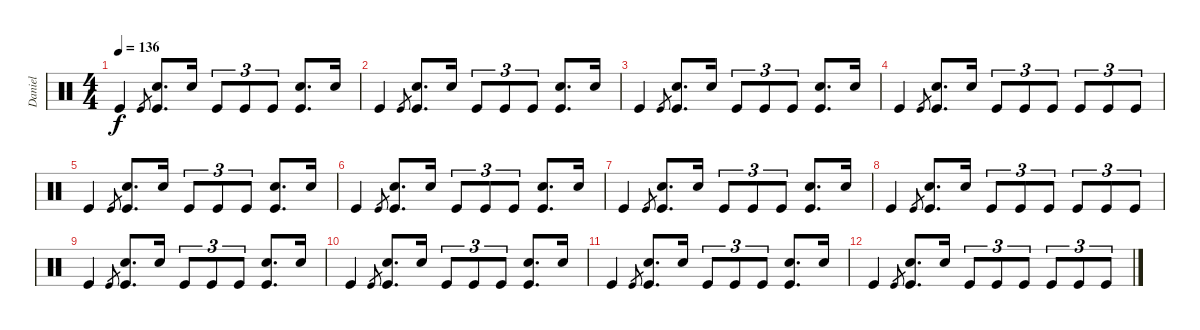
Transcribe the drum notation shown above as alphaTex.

\track ("Daniel" "Daniel") {instrument percussion}
\staff {score}
\articulation defaults
\ts (4 4)
\tempo 136
\clef neutral
\ks c "Kick (hit)".4{dy f} "Kick (hit)"{h}.8{gr}
("Snare (hit) 2" "Kick (hit)").8{d} "Snare (hit) 2".16 "Kick (hit)".8{tu (3 2)} "Kick (hit)".8{tu (3 2)} "Kick (hit)".8{tu (3 2)} ("Snare (hit) 2" "Kick (hit)").8{d} "Snare (hit) 2".16 |
"Kick (hit)".4 "Kick (hit)"{h}.8{gr} ("Snare (hit) 2" "Kick (hit)").8{d} "Snare (hit) 2".16 "Kick (hit)".8{tu (3 2)} "Kick (hit)".8{tu (3 2)} "Kick (hit)".8{tu (3 2)} ("Snare (hit) 2" "Kick (hit)").8{d} "Snare (hit) 2".16 |
"Kick (hit)".4 "Kick (hit)"{h}.8{gr} ("Snare (hit) 2" "Kick (hit)").8{d} "Snare (hit) 2".16 "Kick (hit)".8{tu (3 2)} "Kick (hit)".8{tu (3 2)} "Kick (hit)".8{tu (3 2)} ("Snare (hit) 2" "Kick (hit)").8{d} "Snare (hit) 2".16 |
"Kick (hit)".4 "Kick (hit)"{h}.8{gr} ("Snare (hit) 2" "Kick (hit)").8{d} "Snare (hit) 2".16 "Kick (hit)".8{tu (3 2)} "Kick (hit)".8{tu (3 2)} "Kick (hit)".8{tu (3 2)} "Kick (hit)".8{tu (3 2)} "Kick (hit)".8{tu (3 2)} "Kick (hit)".8{tu (3 2)} |
"Kick (hit)".4 "Kick (hit)"{h}.8{gr} ("Snare (hit) 2" "Kick (hit)").8{d} "Snare (hit) 2".16 "Kick (hit)".8{tu (3 2)} "Kick (hit)".8{tu (3 2)} "Kick (hit)".8{tu (3 2)} ("Snare (hit) 2" "Kick (hit)").8{d} "Snare (hit) 2".16 |
"Kick (hit)".4 "Kick (hit)"{h}.8{gr} ("Snare (hit) 2" "Kick (hit)").8{d} "Snare (hit) 2".16 "Kick (hit)".8{tu (3 2)} "Kick (hit)".8{tu (3 2)} "Kick (hit)".8{tu (3 2)} ("Snare (hit) 2" "Kick (hit)").8{d} "Snare (hit) 2".16 |
"Kick (hit)".4 "Kick (hit)"{h}.8{gr} ("Snare (hit) 2" "Kick (hit)").8{d} "Snare (hit) 2".16 "Kick (hit)".8{tu (3 2)} "Kick (hit)".8{tu (3 2)} "Kick (hit)".8{tu (3 2)} ("Snare (hit) 2" "Kick (hit)").8{d} "Snare (hit) 2".16 |
"Kick (hit)".4 "Kick (hit)"{h}.8{gr} ("Snare (hit) 2" "Kick (hit)").8{d} "Snare (hit) 2".16 "Kick (hit)".8{tu (3 2)} "Kick (hit)".8{tu (3 2)} "Kick (hit)".8{tu (3 2)} "Kick (hit)".8{tu (3 2)} "Kick (hit)".8{tu (3 2)} "Kick (hit)".8{tu (3 2)} |
"Kick (hit)".4{volume 0} "Kick (hit)"{h}.8{gr} ("Snare (hit) 2" "Kick (hit)").8{d} "Snare (hit) 2".16 "Kick (hit)".8{tu (3 2)} "Kick (hit)".8{tu (3 2)} "Kick (hit)".8{tu (3 2)} ("Snare (hit) 2" "Kick (hit)").8{d} "Snare (hit) 2".16 |
"Kick (hit)".4 "Kick (hit)"{h}.8{gr} ("Snare (hit) 2" "Kick (hit)").8{d} "Snare (hit) 2".16 "Kick (hit)".8{tu (3 2)} "Kick (hit)".8{tu (3 2)} "Kick (hit)".8{tu (3 2)} ("Snare (hit) 2" "Kick (hit)").8{d} "Snare (hit) 2".16 |
"Kick (hit)".4 "Kick (hit)"{h}.8{gr} ("Snare (hit) 2" "Kick (hit)").8{d} "Snare (hit) 2".16 "Kick (hit)".8{tu (3 2)} "Kick (hit)".8{tu (3 2)} "Kick (hit)".8{tu (3 2)} ("Snare (hit) 2" "Kick (hit)").8{d} "Snare (hit) 2".16 |
"Kick (hit)".4 "Kick (hit)"{h}.8{gr} ("Snare (hit) 2" "Kick (hit)").8{d} "Snare (hit) 2".16 "Kick (hit)".8{tu (3 2)} "Kick (hit)".8{tu (3 2)} "Kick (hit)".8{tu (3 2)} "Kick (hit)".8{tu (3 2)} "Kick (hit)".8{tu (3 2)} "Kick (hit)".8{tu (3 2)}
